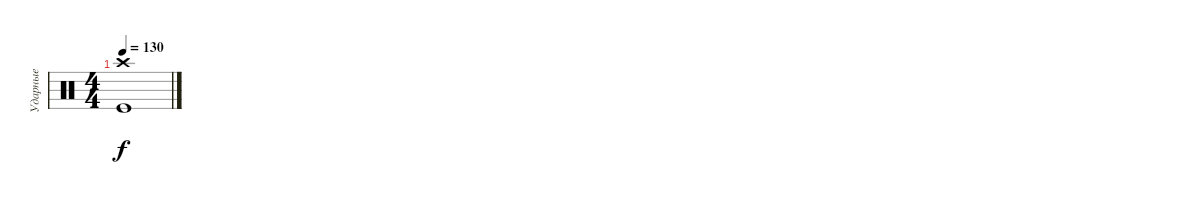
\track ("Ударные" "Ударные") {instrument percussion}
\staff {score}
\articulation defaults
\ts (4 4)
\tempo 130
\clef neutral
\ks c
("Crash high (hit)" "Kick (hit)").1{dy f}
